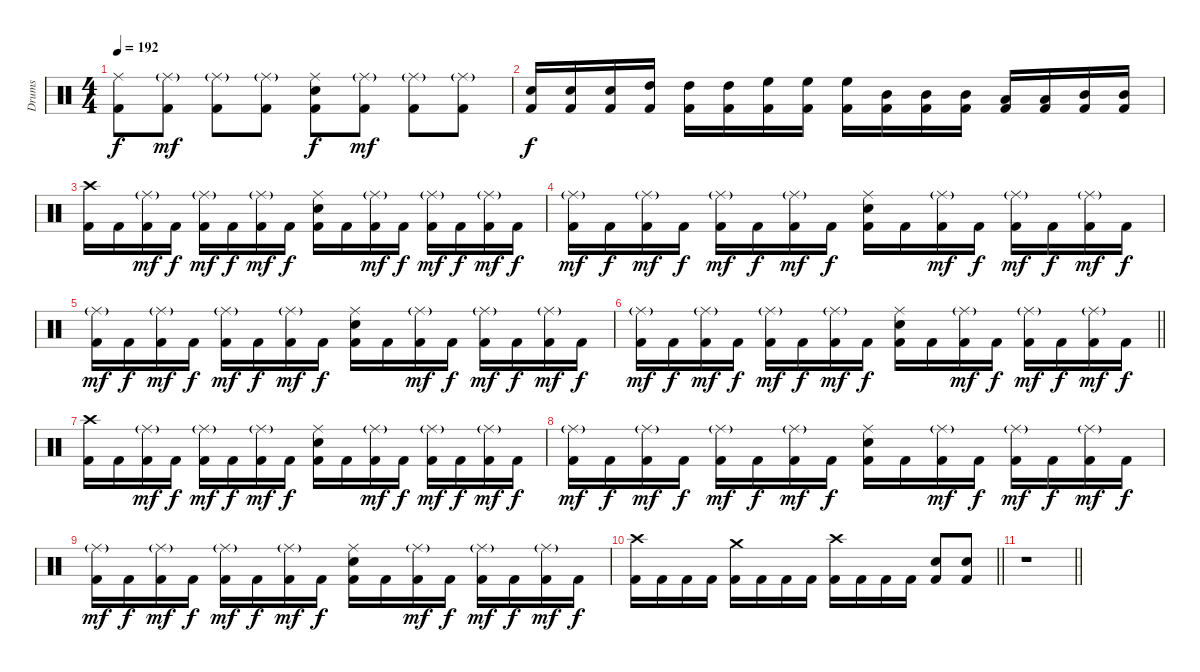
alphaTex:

\track ("Drums" "Drums") {instrument percussion}
\staff {score}
\articulation defaults
\ts (4 4)
\tempo 192
\clef neutral
\ks c
("Ride (middle)" "Kick (hit) 2").8{dy f} ("Ride (middle)"{g} "Kick (hit) 2").8{dy mf} ("Ride (middle)"{g} "Kick (hit) 2").8 ("Ride (middle)"{g} "Kick (hit) 2").8 ("Ride (middle)" "Electric Snare (hit)" "Kick (hit) 2").8{dy f} ("Ride (middle)"{g} "Kick (hit) 2").8{dy mf} ("Ride (middle)"{g} "Kick (hit) 2").8 ("Ride (middle)"{g} "Kick (hit) 2").8 |
("Electric Snare (hit)" "Kick (hit) 2").16{dy f} ("Electric Snare (hit)" "Kick (hit) 2").16 ("Electric Snare (hit)" "Kick (hit) 2").16 ("High Tom (hit)" "Kick (hit) 2").16 ("High Tom (hit)" "Kick (hit) 2").16 ("High Tom (hit)" "Kick (hit) 2").16 ("High Floor Tom (hit)" "Kick (hit) 2").16 ("High Floor Tom (hit)" "Kick (hit) 2").16 ("High Floor Tom (hit)" "Kick (hit) 2").16 ("Mid Tom (hit)" "Kick (hit) 2").16 ("Mid Tom (hit)" "Kick (hit) 2").16 ("Mid Tom (hit)" "Kick (hit) 2").16 ("Low Tom (hit)" "Kick (hit) 2").16 ("Low Tom (hit)" "Kick (hit) 2").16 ("Mid Tom (hit)" "Kick (hit) 2").16 ("Mid Tom (hit)" "Kick (hit) 2").16 |
("Crash high (hit)" "Kick (hit) 2").16 "Kick (hit) 2".16 ("Ride (middle)"{g} "Kick (hit) 2").16{dy mf} "Kick (hit) 2".16{dy f} ("Ride (middle)"{g} "Kick (hit) 2").16{dy mf} "Kick (hit) 2".16{dy f} ("Ride (middle)"{g} "Kick (hit) 2").16{dy mf} "Kick (hit) 2".16{dy f} ("Ride (middle)" "Electric Snare (hit)" "Kick (hit) 2").16 "Kick (hit) 2".16 ("Ride (middle)"{g} "Kick (hit) 2").16{dy mf} "Kick (hit) 2".16{dy f} ("Ride (middle)"{g} "Kick (hit) 2").16{dy mf} "Kick (hit) 2".16{dy f} ("Ride (middle)"{g} "Kick (hit) 2").16{dy mf} "Kick (hit) 2".16{dy f} |
("Ride (middle)"{g} "Kick (hit) 2").16{dy mf} "Kick (hit) 2".16{dy f} ("Ride (middle)"{g} "Kick (hit) 2").16{dy mf} "Kick (hit) 2".16{dy f} ("Ride (middle)"{g} "Kick (hit) 2").16{dy mf} "Kick (hit) 2".16{dy f} ("Ride (middle)"{g} "Kick (hit) 2").16{dy mf} "Kick (hit) 2".16{dy f} ("Ride (middle)" "Electric Snare (hit)" "Kick (hit) 2").16 "Kick (hit) 2".16 ("Ride (middle)"{g} "Kick (hit) 2").16{dy mf} "Kick (hit) 2".16{dy f} ("Ride (middle)"{g} "Kick (hit) 2").16{dy mf} "Kick (hit) 2".16{dy f} ("Ride (middle)"{g} "Kick (hit) 2").16{dy mf} "Kick (hit) 2".16{dy f} |
("Ride (middle)"{g} "Kick (hit) 2").16{dy mf} "Kick (hit) 2".16{dy f} ("Ride (middle)"{g} "Kick (hit) 2").16{dy mf} "Kick (hit) 2".16{dy f} ("Ride (middle)"{g} "Kick (hit) 2").16{dy mf} "Kick (hit) 2".16{dy f} ("Ride (middle)"{g} "Kick (hit) 2").16{dy mf} "Kick (hit) 2".16{dy f} ("Ride (middle)" "Electric Snare (hit)" "Kick (hit) 2").16 "Kick (hit) 2".16 ("Ride (middle)"{g} "Kick (hit) 2").16{dy mf} "Kick (hit) 2".16{dy f} ("Ride (middle)"{g} "Kick (hit) 2").16{dy mf} "Kick (hit) 2".16{dy f} ("Ride (middle)"{g} "Kick (hit) 2").16{dy mf} "Kick (hit) 2".16{dy f} |
\barLineRight lightlight
("Ride (middle)"{g} "Kick (hit) 2").16{dy mf} "Kick (hit) 2".16{dy f} ("Ride (middle)"{g} "Kick (hit) 2").16{dy mf} "Kick (hit) 2".16{dy f} ("Ride (middle)"{g} "Kick (hit) 2").16{dy mf} "Kick (hit) 2".16{dy f} ("Ride (middle)"{g} "Kick (hit) 2").16{dy mf} "Kick (hit) 2".16{dy f} ("Ride (middle)" "Electric Snare (hit)" "Kick (hit) 2").16 "Kick (hit) 2".16 ("Ride (middle)"{g} "Kick (hit) 2").16{dy mf} "Kick (hit) 2".16{dy f} ("Ride (middle)"{g} "Kick (hit) 2").16{dy mf} "Kick (hit) 2".16{dy f} ("Ride (middle)"{g} "Kick (hit) 2").16{dy mf} "Kick (hit) 2".16{dy f} |
("Crash high (hit)" "Kick (hit) 2").16 "Kick (hit) 2".16 ("Ride (middle)"{g} "Kick (hit) 2").16{dy mf} "Kick (hit) 2".16{dy f} ("Ride (middle)"{g} "Kick (hit) 2").16{dy mf} "Kick (hit) 2".16{dy f} ("Ride (middle)"{g} "Kick (hit) 2").16{dy mf} "Kick (hit) 2".16{dy f} ("Ride (middle)" "Electric Snare (hit)" "Kick (hit) 2").16 "Kick (hit) 2".16 ("Ride (middle)"{g} "Kick (hit) 2").16{dy mf} "Kick (hit) 2".16{dy f} ("Ride (middle)"{g} "Kick (hit) 2").16{dy mf} "Kick (hit) 2".16{dy f} ("Ride (middle)"{g} "Kick (hit) 2").16{dy mf} "Kick (hit) 2".16{dy f} |
("Ride (middle)"{g} "Kick (hit) 2").16{dy mf} "Kick (hit) 2".16{dy f} ("Ride (middle)"{g} "Kick (hit) 2").16{dy mf} "Kick (hit) 2".16{dy f} ("Ride (middle)"{g} "Kick (hit) 2").16{dy mf} "Kick (hit) 2".16{dy f} ("Ride (middle)"{g} "Kick (hit) 2").16{dy mf} "Kick (hit) 2".16{dy f} ("Ride (middle)" "Electric Snare (hit)" "Kick (hit) 2").16 "Kick (hit) 2".16 ("Ride (middle)"{g} "Kick (hit) 2").16{dy mf} "Kick (hit) 2".16{dy f} ("Ride (middle)"{g} "Kick (hit) 2").16{dy mf} "Kick (hit) 2".16{dy f} ("Ride (middle)"{g} "Kick (hit) 2").16{dy mf} "Kick (hit) 2".16{dy f} |
("Ride (middle)"{g} "Kick (hit) 2").16{dy mf} "Kick (hit) 2".16{dy f} ("Ride (middle)"{g} "Kick (hit) 2").16{dy mf} "Kick (hit) 2".16{dy f} ("Ride (middle)"{g} "Kick (hit) 2").16{dy mf} "Kick (hit) 2".16{dy f} ("Ride (middle)"{g} "Kick (hit) 2").16{dy mf} "Kick (hit) 2".16{dy f} ("Ride (middle)" "Electric Snare (hit)" "Kick (hit) 2").16 "Kick (hit) 2".16 ("Ride (middle)"{g} "Kick (hit) 2").16{dy mf} "Kick (hit) 2".16{dy f} ("Ride (middle)"{g} "Kick (hit) 2").16{dy mf} "Kick (hit) 2".16{dy f} ("Ride (middle)"{g} "Kick (hit) 2").16{dy mf} "Kick (hit) 2".16{dy f} |
\barLineRight lightlight
("Crash high (hit)" "Kick (hit) 2").16 "Kick (hit) 2".16 "Kick (hit) 2".16 "Kick (hit) 2".16 ("Crash medium (hit)" "Kick (hit) 2").16 "Kick (hit) 2".16 "Kick (hit) 2".16 "Kick (hit) 2".16 ("Crash high (hit)" "Kick (hit) 2").16 "Kick (hit) 2".16 "Kick (hit) 2".16 "Kick (hit) 2".16 ("Electric Snare (hit)" "Kick (hit) 2").8 ("Electric Snare (hit)" "Kick (hit) 2").8 |
\barLineRight lightlight
r.1
